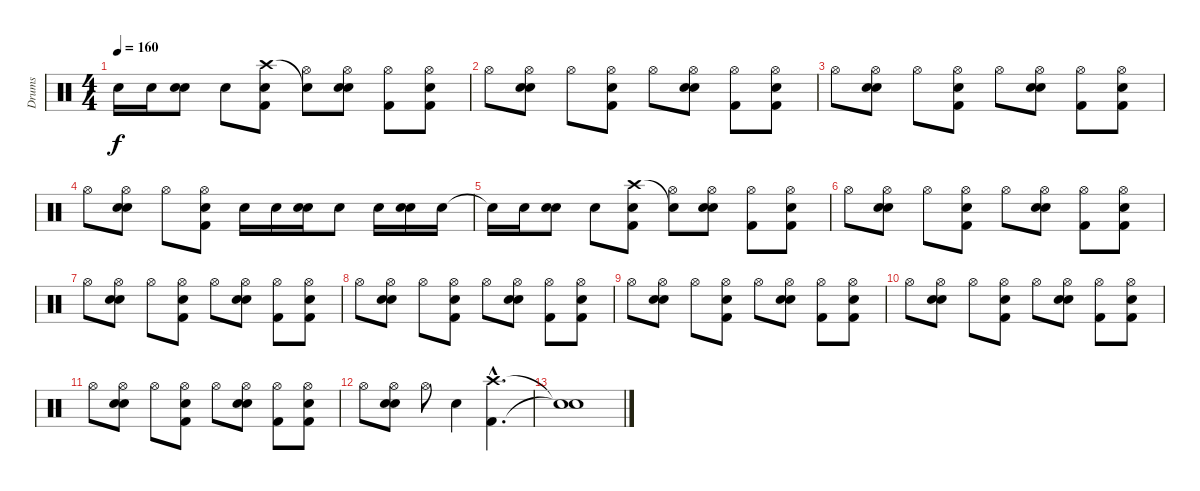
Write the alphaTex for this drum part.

\track ("Drums" "Drums") {instrument percussion}
\staff {score}
\articulation defaults
\ts (4 4)
\tempo 160
\clef neutral
\ks c "Snare (hit)"{t}.16{dy f} "Snare (hit) 2".16
("Snare (hit) 2" "Hand Clap (hit)").8 "Snare (hit) 2".8 ("Kick (hit) 2" "Crash high (hit)" "Hand Clap (hit)").8 ("Hi-Hat (open)" "Snare (hit)"{t}).8 ("Snare (hit) 2" "Hi-Hat (open)" "Hand Clap (hit)").8 ("Kick (hit) 2" "Hi-Hat (open)").8 ("Kick (hit) 2" "Hi-Hat (open)" "Hand Clap (hit)").8 |
"Hi-Hat (open)".8 ("Snare (hit) 2" "Hi-Hat (open)" "Hand Clap (hit)").8 "Hi-Hat (open)".8 ("Kick (hit) 2" "Hi-Hat (open)" "Hand Clap (hit)").8 "Hi-Hat (open)".8 ("Snare (hit) 2" "Hi-Hat (open)" "Hand Clap (hit)").8 ("Kick (hit) 2" "Hi-Hat (open)").8 ("Kick (hit) 2" "Hi-Hat (open)" "Hand Clap (hit)").8 |
"Hi-Hat (open)".8 ("Snare (hit) 2" "Hi-Hat (open)" "Hand Clap (hit)").8 "Hi-Hat (open)".8 ("Kick (hit) 2" "Hi-Hat (open)" "Hand Clap (hit)").8 "Hi-Hat (open)".8 ("Snare (hit) 2" "Hi-Hat (open)" "Hand Clap (hit)").8 ("Kick (hit) 2" "Hi-Hat (open)").8 ("Kick (hit) 2" "Hi-Hat (open)" "Hand Clap (hit)").8 |
"Hi-Hat (open)".8 ("Snare (hit) 2" "Hi-Hat (open)" "Hand Clap (hit)").8 "Hi-Hat (open)".8 ("Kick (hit) 2" "Hi-Hat (open)" "Hand Clap (hit)").8 "Snare (hit) 2".16 "Snare (hit) 2".16 ("Snare (hit) 2" "Hand Clap (hit)").16 "Snare (hit) 2".8 "Snare (hit) 2".16 ("Snare (hit) 2" "Hand Clap (hit)").16 "Snare (hit) 2".16 |
"Snare (hit)"{t}.16 "Snare (hit) 2".16 ("Snare (hit) 2" "Hand Clap (hit)").8 "Snare (hit) 2".8 ("Kick (hit) 2" "Crash high (hit)" "Hand Clap (hit)").8 ("Hi-Hat (open)" "Snare (hit)"{t}).8 ("Snare (hit) 2" "Hi-Hat (open)" "Hand Clap (hit)").8 ("Kick (hit) 2" "Hi-Hat (open)").8 ("Kick (hit) 2" "Hi-Hat (open)" "Hand Clap (hit)").8 |
"Hi-Hat (open)".8 ("Snare (hit) 2" "Hi-Hat (open)" "Hand Clap (hit)").8 "Hi-Hat (open)".8 ("Kick (hit) 2" "Hi-Hat (open)" "Hand Clap (hit)").8 "Hi-Hat (open)".8 ("Snare (hit) 2" "Hi-Hat (open)" "Hand Clap (hit)").8 ("Kick (hit) 2" "Hi-Hat (open)").8 ("Kick (hit) 2" "Hi-Hat (open)" "Hand Clap (hit)").8 |
"Hi-Hat (open)".8 ("Snare (hit) 2" "Hi-Hat (open)" "Hand Clap (hit)").8 "Hi-Hat (open)".8 ("Kick (hit) 2" "Hi-Hat (open)" "Hand Clap (hit)").8 "Hi-Hat (open)".8 ("Snare (hit) 2" "Hi-Hat (open)" "Hand Clap (hit)").8 ("Kick (hit) 2" "Hi-Hat (open)").8 ("Kick (hit) 2" "Hi-Hat (open)" "Hand Clap (hit)").8 |
"Hi-Hat (open)".8 ("Snare (hit) 2" "Hi-Hat (open)" "Hand Clap (hit)").8 "Hi-Hat (open)".8 ("Kick (hit) 2" "Hi-Hat (open)" "Hand Clap (hit)").8 "Hi-Hat (open)".8 ("Snare (hit) 2" "Hi-Hat (open)" "Hand Clap (hit)").8 ("Kick (hit) 2" "Hi-Hat (open)").8 ("Kick (hit) 2" "Hi-Hat (open)" "Hand Clap (hit)").8 |
"Hi-Hat (open)".8 ("Snare (hit) 2" "Hi-Hat (open)" "Hand Clap (hit)").8 "Hi-Hat (open)".8 ("Kick (hit) 2" "Hi-Hat (open)" "Hand Clap (hit)").8 "Hi-Hat (open)".8 ("Snare (hit) 2" "Hi-Hat (open)" "Hand Clap (hit)").8 ("Kick (hit) 2" "Hi-Hat (open)").8 ("Kick (hit) 2" "Hi-Hat (open)" "Hand Clap (hit)").8 |
"Hi-Hat (open)".8 ("Snare (hit) 2" "Hi-Hat (open)" "Hand Clap (hit)").8 "Hi-Hat (open)".8 ("Kick (hit) 2" "Hi-Hat (open)" "Hand Clap (hit)").8 "Hi-Hat (open)".8 ("Snare (hit) 2" "Hi-Hat (open)" "Hand Clap (hit)").8 ("Kick (hit) 2" "Hi-Hat (open)").8 ("Kick (hit) 2" "Hi-Hat (open)" "Hand Clap (hit)").8 |
"Hi-Hat (open)".8 ("Snare (hit) 2" "Hi-Hat (open)" "Hand Clap (hit)").8 "Hi-Hat (open)".8 ("Kick (hit) 2" "Hi-Hat (open)" "Hand Clap (hit)").8 "Hi-Hat (open)".8 ("Snare (hit) 2" "Hi-Hat (open)" "Hand Clap (hit)").8 ("Kick (hit) 2" "Hi-Hat (open)").8 ("Kick (hit) 2" "Hi-Hat (open)" "Hand Clap (hit)").8 |
"Hi-Hat (open)".8 ("Snare (hit) 2" "Hi-Hat (open)" "Hand Clap (hit)").8 "Hi-Hat (open)".8 "Hand Clap (hit)".4 ("Kick (hit) 2"{hac} "Crash high (hit)"{hac}).4{d} |
("Snare (hit)"{t} "Snare (hit)"{t}).1
